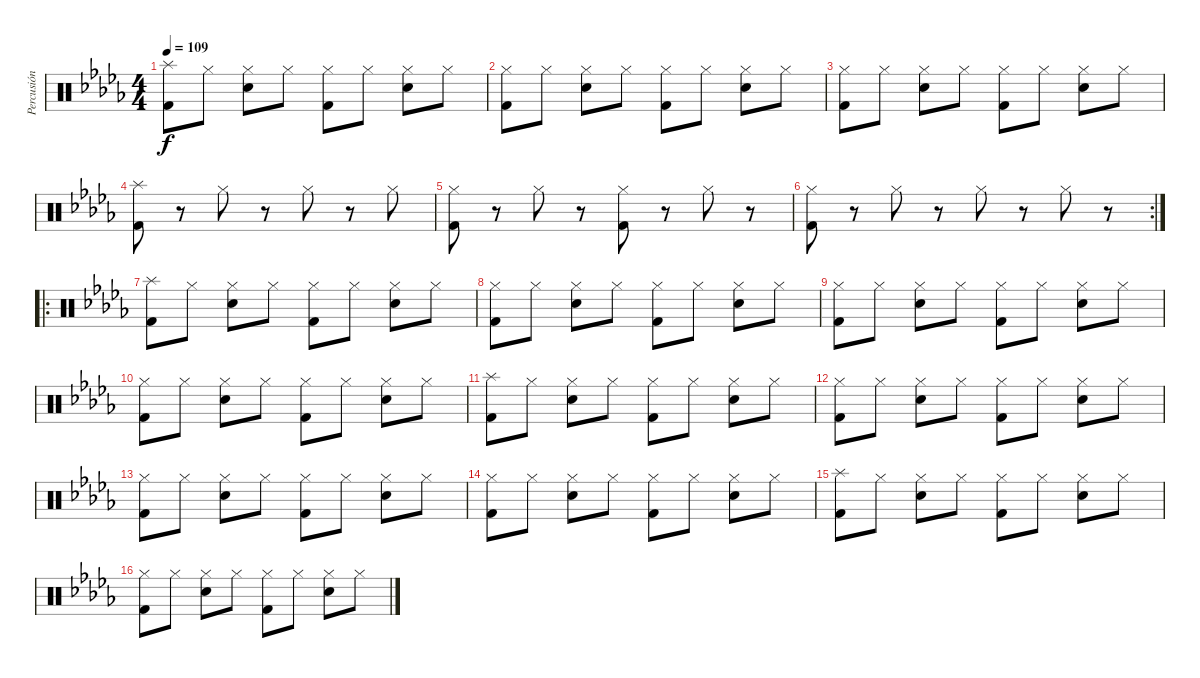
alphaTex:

\track ("Percusión" "Percusión") {instrument percussion}
\staff {score}
\articulation defaults
\ts (4 4)
\tempo 109
\clef neutral
\ks bbminor
("Kick (hit) 2" "Splash (hit)").8{dy f} "Hi-Hat (closed)".8 ("Snare (hit) 2" "Hi-Hat (closed)").8 "Hi-Hat (closed)".8 ("Kick (hit) 2" "Hi-Hat (closed)").8 "Hi-Hat (closed)".8 ("Snare (hit) 2" "Hi-Hat (closed)").8 "Hi-Hat (closed)".8 |
("Kick (hit) 2" "Hi-Hat (closed)").8 "Hi-Hat (closed)".8 ("Snare (hit) 2" "Hi-Hat (closed)").8 "Hi-Hat (closed)".8 ("Kick (hit) 2" "Hi-Hat (closed)").8 "Hi-Hat (closed)".8 ("Snare (hit) 2" "Hi-Hat (closed)").8 "Hi-Hat (closed)".8 |
("Kick (hit) 2" "Hi-Hat (closed)").8 "Hi-Hat (closed)".8 ("Snare (hit) 2" "Hi-Hat (closed)").8 "Hi-Hat (closed)".8 ("Kick (hit) 2" "Hi-Hat (closed)").8 "Hi-Hat (closed)".8 ("Snare (hit) 2" "Hi-Hat (closed)").8 "Hi-Hat (closed)".8 |
("Kick (hit) 2" "Splash (hit)").8 r.8 "Hi-Hat (closed)".8 r.8 "Hi-Hat (closed)".8 r.8 "Hi-Hat (closed)".8 |
("Kick (hit) 2" "Hi-Hat (closed)").8 r.8 "Hi-Hat (closed)".8 r.8 ("Kick (hit) 2" "Hi-Hat (closed)").8 r.8 "Hi-Hat (closed)".8 r.8 |
\rc 2
("Kick (hit) 2" "Hi-Hat (closed)").8 r.8 "Hi-Hat (closed)".8 r.8 "Hi-Hat (closed)".8 r.8 "Hi-Hat (closed)".8 r.8 |
\ro
("Kick (hit) 2" "Splash (hit)").8 "Hi-Hat (closed)".8 ("Snare (hit) 2" "Hi-Hat (closed)").8 "Hi-Hat (closed)".8 ("Kick (hit) 2" "Hi-Hat (closed)").8 "Hi-Hat (closed)".8 ("Snare (hit) 2" "Hi-Hat (closed)").8 "Hi-Hat (closed)".8 |
("Kick (hit) 2" "Hi-Hat (closed)").8 "Hi-Hat (closed)".8 ("Snare (hit) 2" "Hi-Hat (closed)").8 "Hi-Hat (closed)".8 ("Kick (hit) 2" "Hi-Hat (closed)").8 "Hi-Hat (closed)".8 ("Snare (hit) 2" "Hi-Hat (closed)").8 "Hi-Hat (closed)".8 |
("Kick (hit) 2" "Hi-Hat (closed)").8 "Hi-Hat (closed)".8 ("Snare (hit) 2" "Hi-Hat (closed)").8 "Hi-Hat (closed)".8 ("Kick (hit) 2" "Hi-Hat (closed)").8 "Hi-Hat (closed)".8 ("Snare (hit) 2" "Hi-Hat (closed)").8 "Hi-Hat (closed)".8 |
("Kick (hit) 2" "Hi-Hat (closed)").8 "Hi-Hat (closed)".8 ("Snare (hit) 2" "Hi-Hat (closed)").8 "Hi-Hat (closed)".8 ("Kick (hit) 2" "Hi-Hat (closed)").8 "Hi-Hat (closed)".8 ("Snare (hit) 2" "Hi-Hat (closed)").8 "Hi-Hat (closed)".8 |
("Kick (hit) 2" "Splash (hit)").8 "Hi-Hat (closed)".8 ("Snare (hit) 2" "Hi-Hat (closed)").8 "Hi-Hat (closed)".8 ("Kick (hit) 2" "Hi-Hat (closed)").8 "Hi-Hat (closed)".8 ("Snare (hit) 2" "Hi-Hat (closed)").8 "Hi-Hat (closed)".8 |
("Kick (hit) 2" "Hi-Hat (closed)").8 "Hi-Hat (closed)".8 ("Snare (hit) 2" "Hi-Hat (closed)").8 "Hi-Hat (closed)".8 ("Kick (hit) 2" "Hi-Hat (closed)").8 "Hi-Hat (closed)".8 ("Snare (hit) 2" "Hi-Hat (closed)").8 "Hi-Hat (closed)".8 |
("Kick (hit) 2" "Hi-Hat (closed)").8 "Hi-Hat (closed)".8 ("Snare (hit) 2" "Hi-Hat (closed)").8 "Hi-Hat (closed)".8 ("Kick (hit) 2" "Hi-Hat (closed)").8 "Hi-Hat (closed)".8 ("Snare (hit) 2" "Hi-Hat (closed)").8 "Hi-Hat (closed)".8 |
("Kick (hit) 2" "Hi-Hat (closed)").8 "Hi-Hat (closed)".8 ("Snare (hit) 2" "Hi-Hat (closed)").8 "Hi-Hat (closed)".8 ("Kick (hit) 2" "Hi-Hat (closed)").8 "Hi-Hat (closed)".8 ("Snare (hit) 2" "Hi-Hat (closed)").8 "Hi-Hat (closed)".8 |
("Kick (hit) 2" "Splash (hit)").8 "Hi-Hat (closed)".8 ("Snare (hit) 2" "Hi-Hat (closed)").8 "Hi-Hat (closed)".8 ("Kick (hit) 2" "Hi-Hat (closed)").8 "Hi-Hat (closed)".8 ("Snare (hit) 2" "Hi-Hat (closed)").8 "Hi-Hat (closed)".8 |
("Kick (hit) 2" "Hi-Hat (closed)").8 "Hi-Hat (closed)".8 ("Snare (hit) 2" "Hi-Hat (closed)").8 "Hi-Hat (closed)".8 ("Kick (hit) 2" "Hi-Hat (closed)").8 "Hi-Hat (closed)".8 ("Snare (hit) 2" "Hi-Hat (closed)").8 "Hi-Hat (closed)".8
